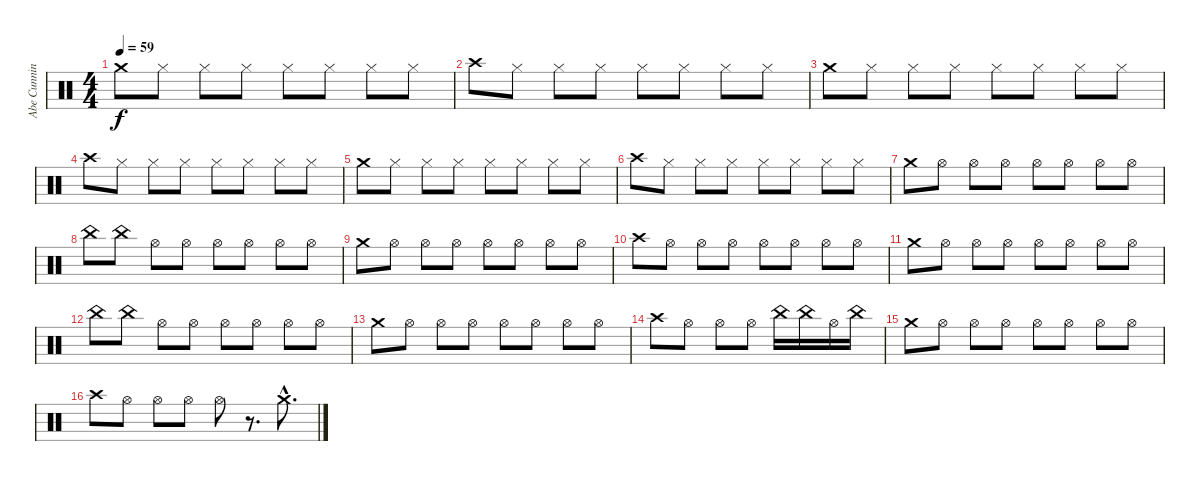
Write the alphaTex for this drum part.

\track ("Abe Cunningham Cymbals" "Abe Cunnin") {instrument percussion}
\staff {score}
\articulation defaults
\ts (4 4)
\tempo 59
\clef neutral
\ks c "Crash medium (hit)".8{dy f} "Hi-Hat (closed)".8 "Hi-Hat (closed)".8 "Hi-Hat (closed)".8 "Hi-Hat (closed)".8 "Hi-Hat (closed)".8 "Hi-Hat (closed)".8 "Hi-Hat (closed)".8
|
"Crash high (hit)".8 "Hi-Hat (closed)".8 "Hi-Hat (closed)".8 "Hi-Hat (closed)".8 "Hi-Hat (closed)".8 "Hi-Hat (closed)".8 "Hi-Hat (closed)".8 "Hi-Hat (closed)".8 |
"Crash medium (hit)".8 "Hi-Hat (closed)".8 "Hi-Hat (closed)".8 "Hi-Hat (closed)".8 "Hi-Hat (closed)".8 "Hi-Hat (closed)".8 "Hi-Hat (closed)".8 "Hi-Hat (closed)".8 |
"Crash high (hit)".8 "Hi-Hat (closed)".8 "Hi-Hat (closed)".8 "Hi-Hat (closed)".8 "Hi-Hat (closed)".8 "Hi-Hat (closed)".8 "Hi-Hat (closed)".8 "Hi-Hat (closed)".8 |
"Crash medium (hit)".8 "Hi-Hat (closed)".8 "Hi-Hat (closed)".8 "Hi-Hat (closed)".8 "Hi-Hat (closed)".8 "Hi-Hat (closed)".8 "Hi-Hat (closed)".8 "Hi-Hat (closed)".8 |
"Crash high (hit)".8 "Hi-Hat (closed)".8 "Hi-Hat (closed)".8 "Hi-Hat (closed)".8 "Hi-Hat (closed)".8 "Hi-Hat (closed)".8 "Hi-Hat (closed)".8 "Hi-Hat (closed)".8 |
"Crash medium (hit)".8 "Hi-Hat (open)".8 "Hi-Hat (open)".8 "Hi-Hat (open)".8 "Hi-Hat (open)".8 "Hi-Hat (open)".8 "Hi-Hat (open)".8 "Hi-Hat (open)".8 |
"China (hit)".8 "China (hit)".8 "Hi-Hat (open)".8 "Hi-Hat (open)".8 "Hi-Hat (open)".8 "Hi-Hat (open)".8 "Hi-Hat (open)".8 "Hi-Hat (open)".8 |
"Crash medium (hit)".8 "Hi-Hat (open)".8 "Hi-Hat (open)".8 "Hi-Hat (open)".8 "Hi-Hat (open)".8 "Hi-Hat (open)".8 "Hi-Hat (open)".8 "Hi-Hat (open)".8 |
"Crash high (hit)".8 "Hi-Hat (open)".8 "Hi-Hat (open)".8 "Hi-Hat (open)".8 "Hi-Hat (open)".8 "Hi-Hat (open)".8 "Hi-Hat (open)".8 "Hi-Hat (open)".8 |
"Crash medium (hit)".8 "Hi-Hat (open)".8 "Hi-Hat (open)".8 "Hi-Hat (open)".8 "Hi-Hat (open)".8 "Hi-Hat (open)".8 "Hi-Hat (open)".8 "Hi-Hat (open)".8 |
"China (hit)".8 "China (hit)".8 "Hi-Hat (open)".8 "Hi-Hat (open)".8 "Hi-Hat (open)".8 "Hi-Hat (open)".8 "Hi-Hat (open)".8 "Hi-Hat (open)".8 |
"Crash medium (hit)".8 "Hi-Hat (open)".8 "Hi-Hat (open)".8 "Hi-Hat (open)".8 "Hi-Hat (open)".8 "Hi-Hat (open)".8 "Hi-Hat (open)".8 "Hi-Hat (open)".8 |
"Crash high (hit)".8 "Hi-Hat (open)".8 "Hi-Hat (open)".8 "Hi-Hat (open)".8 "China (hit)".16 "China (hit)".16 "Hi-Hat (open)".16 "China (hit)".16 |
"Crash medium (hit)".8 "Hi-Hat (open)".8 "Hi-Hat (open)".8 "Hi-Hat (open)".8 "Hi-Hat (open)".8 "Hi-Hat (open)".8 "Hi-Hat (open)".8 "Hi-Hat (open)".8 |
"Crash high (hit)".8 "Hi-Hat (open)".8 "Hi-Hat (open)".8 "Hi-Hat (open)".8 "Hi-Hat (open)".8 r.8{d} "Crash medium (hit)"{hac}.8{d}
